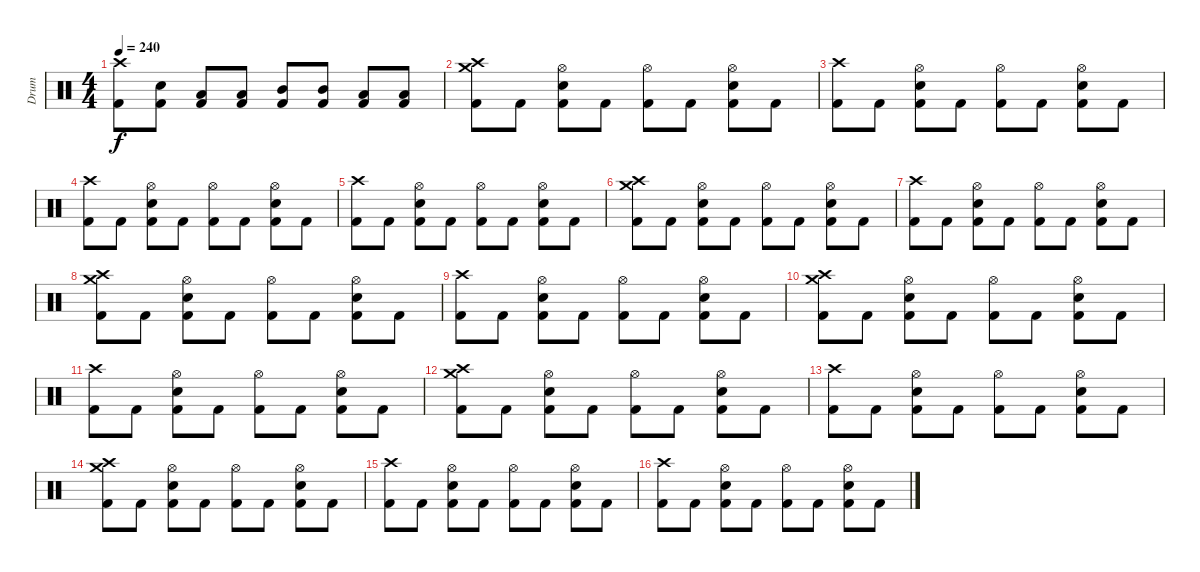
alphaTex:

\track ("Drum" "Drum") {instrument percussion}
\staff {score}
\articulation defaults
\ts (4 4)
\tempo 240
\clef neutral
\ks c
("Crash high (hit)" "Kick (hit) 2").8{dy f} ("Kick (hit) 2" "Electric Snare (hit)").8 ("Kick (hit) 2" "Low Tom (hit)").8 ("Kick (hit) 2" "Low Tom (hit)").8 ("Kick (hit) 2" "Mid Tom (hit)").8 ("Kick (hit) 2" "Mid Tom (hit)").8 ("Kick (hit) 2" "Low Floor Tom (hit)").8 ("Kick (hit) 2" "Low Floor Tom (hit)").8 |
("Crash high (hit)" "Kick (hit) 2" "Crash medium (hit)").8 "Kick (hit) 2".8 ("Hi-Hat (open)" "Kick (hit) 2" "Electric Snare (hit)").8 "Kick (hit) 2".8 ("Hi-Hat (open)" "Kick (hit) 2").8 "Kick (hit) 2".8 ("Hi-Hat (open)" "Kick (hit) 2" "Electric Snare (hit)").8 "Kick (hit) 2".8 |
("Crash high (hit)" "Kick (hit) 2").8 "Kick (hit) 2".8 ("Hi-Hat (open)" "Kick (hit) 2" "Electric Snare (hit)").8 "Kick (hit) 2".8 ("Hi-Hat (open)" "Kick (hit) 2").8 "Kick (hit) 2".8 ("Hi-Hat (open)" "Kick (hit) 2" "Electric Snare (hit)").8 "Kick (hit) 2".8 |
("Crash high (hit)" "Kick (hit) 2").8 "Kick (hit) 2".8 ("Hi-Hat (open)" "Kick (hit) 2" "Electric Snare (hit)").8 "Kick (hit) 2".8 ("Hi-Hat (open)" "Kick (hit) 2").8 "Kick (hit) 2".8 ("Hi-Hat (open)" "Kick (hit) 2" "Electric Snare (hit)").8 "Kick (hit) 2".8 |
("Crash high (hit)" "Kick (hit) 2").8 "Kick (hit) 2".8 ("Hi-Hat (open)" "Kick (hit) 2" "Electric Snare (hit)").8 "Kick (hit) 2".8 ("Hi-Hat (open)" "Kick (hit) 2").8 "Kick (hit) 2".8 ("Hi-Hat (open)" "Kick (hit) 2" "Electric Snare (hit)").8 "Kick (hit) 2".8 |
("Crash high (hit)" "Kick (hit) 2" "Crash medium (hit)").8 "Kick (hit) 2".8 ("Hi-Hat (open)" "Kick (hit) 2" "Electric Snare (hit)").8 "Kick (hit) 2".8 ("Hi-Hat (open)" "Kick (hit) 2").8 "Kick (hit) 2".8 ("Hi-Hat (open)" "Kick (hit) 2" "Electric Snare (hit)").8 "Kick (hit) 2".8 |
("Crash high (hit)" "Kick (hit) 2").8 "Kick (hit) 2".8 ("Hi-Hat (open)" "Kick (hit) 2" "Electric Snare (hit)").8 "Kick (hit) 2".8 ("Hi-Hat (open)" "Kick (hit) 2").8 "Kick (hit) 2".8 ("Hi-Hat (open)" "Kick (hit) 2" "Electric Snare (hit)").8 "Kick (hit) 2".8 |
("Crash high (hit)" "Kick (hit) 2" "Crash medium (hit)").8 "Kick (hit) 2".8 ("Hi-Hat (open)" "Kick (hit) 2" "Electric Snare (hit)").8 "Kick (hit) 2".8 ("Hi-Hat (open)" "Kick (hit) 2").8 "Kick (hit) 2".8 ("Hi-Hat (open)" "Kick (hit) 2" "Electric Snare (hit)").8 "Kick (hit) 2".8 |
("Crash high (hit)" "Kick (hit) 2").8 "Kick (hit) 2".8 ("Hi-Hat (open)" "Kick (hit) 2" "Electric Snare (hit)").8 "Kick (hit) 2".8 ("Hi-Hat (open)" "Kick (hit) 2").8 "Kick (hit) 2".8 ("Hi-Hat (open)" "Kick (hit) 2" "Electric Snare (hit)").8 "Kick (hit) 2".8 |
("Crash high (hit)" "Kick (hit) 2" "Crash medium (hit)").8 "Kick (hit) 2".8 ("Hi-Hat (open)" "Kick (hit) 2" "Electric Snare (hit)").8 "Kick (hit) 2".8 ("Hi-Hat (open)" "Kick (hit) 2").8 "Kick (hit) 2".8 ("Hi-Hat (open)" "Kick (hit) 2" "Electric Snare (hit)").8 "Kick (hit) 2".8 |
("Crash high (hit)" "Kick (hit) 2").8 "Kick (hit) 2".8 ("Hi-Hat (open)" "Kick (hit) 2" "Electric Snare (hit)").8 "Kick (hit) 2".8 ("Hi-Hat (open)" "Kick (hit) 2").8 "Kick (hit) 2".8 ("Hi-Hat (open)" "Kick (hit) 2" "Electric Snare (hit)").8 "Kick (hit) 2".8 |
("Crash high (hit)" "Kick (hit) 2" "Crash medium (hit)").8 "Kick (hit) 2".8 ("Hi-Hat (open)" "Kick (hit) 2" "Electric Snare (hit)").8 "Kick (hit) 2".8 ("Hi-Hat (open)" "Kick (hit) 2").8 "Kick (hit) 2".8 ("Hi-Hat (open)" "Kick (hit) 2" "Electric Snare (hit)").8 "Kick (hit) 2".8 |
("Crash high (hit)" "Kick (hit) 2").8 "Kick (hit) 2".8 ("Hi-Hat (open)" "Kick (hit) 2" "Electric Snare (hit)").8 "Kick (hit) 2".8 ("Hi-Hat (open)" "Kick (hit) 2").8 "Kick (hit) 2".8 ("Hi-Hat (open)" "Kick (hit) 2" "Electric Snare (hit)").8 "Kick (hit) 2".8 |
("Crash high (hit)" "Kick (hit) 2" "Crash medium (hit)").8 "Kick (hit) 2".8 ("Hi-Hat (open)" "Kick (hit) 2" "Electric Snare (hit)").8 "Kick (hit) 2".8 ("Hi-Hat (open)" "Kick (hit) 2").8 "Kick (hit) 2".8 ("Hi-Hat (open)" "Kick (hit) 2" "Electric Snare (hit)").8 "Kick (hit) 2".8 |
("Crash high (hit)" "Kick (hit) 2").8 "Kick (hit) 2".8 ("Hi-Hat (open)" "Kick (hit) 2" "Electric Snare (hit)").8 "Kick (hit) 2".8 ("Hi-Hat (open)" "Kick (hit) 2").8 "Kick (hit) 2".8 ("Hi-Hat (open)" "Kick (hit) 2" "Electric Snare (hit)").8 "Kick (hit) 2".8 |
("Crash high (hit)" "Kick (hit) 2").8 "Kick (hit) 2".8 ("Hi-Hat (open)" "Kick (hit) 2" "Electric Snare (hit)").8 "Kick (hit) 2".8 ("Hi-Hat (open)" "Kick (hit) 2").8 "Kick (hit) 2".8 ("Hi-Hat (open)" "Kick (hit) 2" "Electric Snare (hit)").8 "Kick (hit) 2".8
